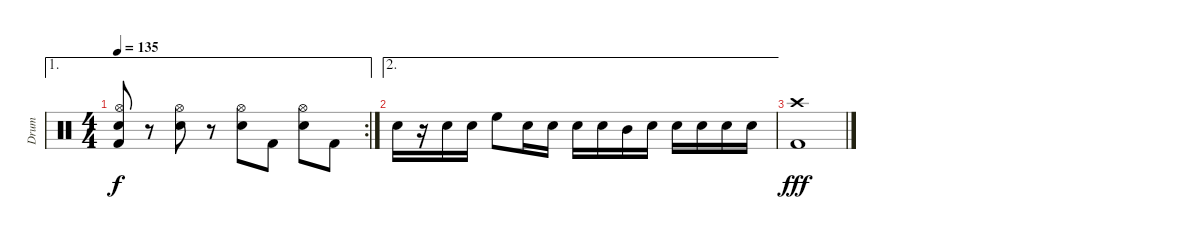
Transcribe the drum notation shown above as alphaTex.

\track ("Drum" "Drum") {instrument percussion}
\staff {score}
\articulation defaults
\ae 1
\rc 2
\ts (4 4)
\tempo 135
\clef neutral
\ks c
("Kick (hit) 2" "Hi-Hat (open)" "Snare (hit) 2").8{dy f} r.8 ("Hi-Hat (open)" "Snare (hit) 2").8 r.8 ("Hi-Hat (open)" "Snare (hit) 2").8 "Kick (hit) 2".8 ("Hi-Hat (open)" "Snare (hit) 2").8 "Kick (hit) 2".8 |
\ae 2 "Snare (hit) 2".16
r.16 "Snare (hit) 2".16 "Snare (hit) 2".16 "High Floor Tom (hit)".8 "Snare (hit) 2".16 "Snare (hit) 2".16 "Snare (hit) 2".16 "Snare (hit) 2".16 "Mid Tom (hit)".16 "Snare (hit) 2".16 "Snare (hit) 2".16 "Snare (hit) 2".16 "Snare (hit) 2".16 "Snare (hit) 2".16 |
("Kick (hit) 2" "Crash high (hit)").1{dy fff}
